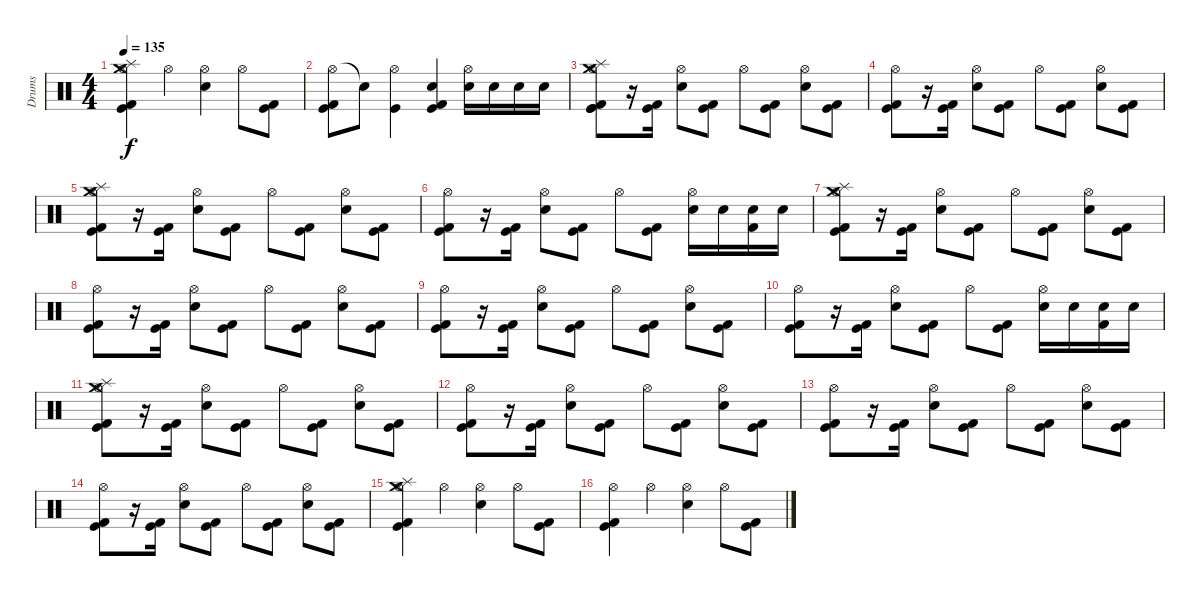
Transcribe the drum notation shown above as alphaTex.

\track ("Drums" "Drums") {instrument percussion}
\staff {score}
\articulation defaults
\ts (4 4)
\tempo 135
\clef neutral
\ks c
("Hi-Hat (open)" "Splash (hit)" "Crash medium (hit)" "Kick (hit)" "Kick (hit) 2").4{dy f} "Hi-Hat (open)".4 ("Hi-Hat (open)" "Snare (hit) 2").4 "Hi-Hat (open)".8 ("Kick (hit)" "Kick (hit) 2").8 |
("Hi-Hat (open)" "Kick (hit)" "Kick (hit) 2").8 "Snare (hit)"{t}.8 ("Hi-Hat (open)" "Kick (hit)").4 ("Kick (hit)" "Kick (hit) 2" "Snare (hit) 2").4 ("Hi-Hat (open)" "Snare (hit) 2").16 "Snare (hit) 2".16 "Snare (hit) 2".16 "Snare (hit) 2".16 |
("Hi-Hat (open)" "Kick (hit)" "Kick (hit) 2" "Splash (hit)" "Crash medium (hit)" "Kick (hit)").8 r.16 ("Kick (hit)" "Kick (hit) 2").16 ("Hi-Hat (open)" "Snare (hit) 2").8 ("Kick (hit)" "Kick (hit) 2").8 "Hi-Hat (open)".8 ("Kick (hit)" "Kick (hit) 2").8 ("Hi-Hat (open)" "Snare (hit) 2").8 ("Kick (hit) 2" "Kick (hit)").8 |
("Hi-Hat (open)" "Kick (hit)" "Kick (hit) 2").8 r.16 ("Kick (hit)" "Kick (hit) 2").16 ("Hi-Hat (open)" "Snare (hit) 2").8 ("Kick (hit)" "Kick (hit) 2").8 "Hi-Hat (open)".8 ("Kick (hit)" "Kick (hit) 2").8 ("Hi-Hat (open)" "Snare (hit) 2").8 ("Kick (hit) 2" "Kick (hit)").8 |
("Hi-Hat (open)" "Kick (hit)" "Kick (hit) 2" "Splash (hit)" "Crash medium (hit)").8 r.16 ("Kick (hit)" "Kick (hit) 2").16 ("Hi-Hat (open)" "Snare (hit) 2").8 ("Kick (hit)" "Kick (hit) 2").8 "Hi-Hat (open)".8 ("Kick (hit)" "Kick (hit) 2").8 ("Hi-Hat (open)" "Snare (hit) 2").8 ("Kick (hit) 2" "Kick (hit)").8 |
("Hi-Hat (open)" "Kick (hit)" "Kick (hit) 2").8 r.16 ("Kick (hit)" "Kick (hit) 2").16 ("Hi-Hat (open)" "Snare (hit) 2").8 ("Kick (hit)" "Kick (hit) 2").8 "Hi-Hat (open)".8 ("Kick (hit)" "Kick (hit) 2").8 ("Hi-Hat (open)" "Snare (hit) 2").16 "Snare (hit) 2".16 ("Kick (hit) 2" "Snare (hit) 2").16 "Snare (hit) 2".16 |
("Hi-Hat (open)" "Kick (hit)" "Kick (hit) 2" "Splash (hit)" "Crash medium (hit)").8 r.16 ("Kick (hit)" "Kick (hit) 2").16 ("Hi-Hat (open)" "Snare (hit) 2").8 ("Kick (hit)" "Kick (hit) 2").8 "Hi-Hat (open)".8 ("Kick (hit)" "Kick (hit) 2").8 ("Hi-Hat (open)" "Snare (hit) 2").8 ("Kick (hit) 2" "Kick (hit)").8 |
("Hi-Hat (open)" "Kick (hit)" "Kick (hit) 2").8 r.16 ("Kick (hit)" "Kick (hit) 2").16 ("Hi-Hat (open)" "Snare (hit) 2").8 ("Kick (hit)" "Kick (hit) 2").8 "Hi-Hat (open)".8 ("Kick (hit)" "Kick (hit) 2").8 ("Hi-Hat (open)" "Snare (hit) 2").8 ("Kick (hit) 2" "Kick (hit)").8 |
("Hi-Hat (open)" "Kick (hit)" "Kick (hit) 2").8 r.16 ("Kick (hit)" "Kick (hit) 2").16 ("Hi-Hat (open)" "Snare (hit) 2").8 ("Kick (hit)" "Kick (hit) 2").8 "Hi-Hat (open)".8 ("Kick (hit)" "Kick (hit) 2").8 ("Hi-Hat (open)" "Snare (hit) 2").8 ("Kick (hit) 2" "Kick (hit)").8 |
("Hi-Hat (open)" "Kick (hit)" "Kick (hit) 2").8 r.16 ("Kick (hit)" "Kick (hit) 2").16 ("Hi-Hat (open)" "Snare (hit) 2").8 ("Kick (hit)" "Kick (hit) 2").8 "Hi-Hat (open)".8 ("Kick (hit)" "Kick (hit) 2").8 ("Hi-Hat (open)" "Snare (hit) 2").16 "Snare (hit) 2".16 ("Kick (hit) 2" "Snare (hit) 2").16 "Snare (hit) 2".16 |
("Hi-Hat (open)" "Kick (hit)" "Kick (hit) 2" "Splash (hit)" "Crash medium (hit)").8 r.16 ("Kick (hit)" "Kick (hit) 2").16 ("Hi-Hat (open)" "Snare (hit) 2").8 ("Kick (hit)" "Kick (hit) 2").8 "Hi-Hat (open)".8 ("Kick (hit)" "Kick (hit) 2").8 ("Hi-Hat (open)" "Snare (hit) 2").8 ("Kick (hit) 2" "Kick (hit)").8 |
("Hi-Hat (open)" "Kick (hit)" "Kick (hit) 2").8 r.16 ("Kick (hit)" "Kick (hit) 2").16 ("Hi-Hat (open)" "Snare (hit) 2").8 ("Kick (hit)" "Kick (hit) 2").8 "Hi-Hat (open)".8 ("Kick (hit)" "Kick (hit) 2").8 ("Hi-Hat (open)" "Snare (hit) 2").8 ("Kick (hit) 2" "Kick (hit)").8 |
("Hi-Hat (open)" "Kick (hit)" "Kick (hit) 2").8 r.16 ("Kick (hit)" "Kick (hit) 2").16 ("Hi-Hat (open)" "Snare (hit) 2").8 ("Kick (hit)" "Kick (hit) 2").8 "Hi-Hat (open)".8 ("Kick (hit)" "Kick (hit) 2").8 ("Hi-Hat (open)" "Snare (hit) 2").8 ("Kick (hit) 2" "Kick (hit)").8 |
("Hi-Hat (open)" "Kick (hit)" "Kick (hit) 2").8 r.16 ("Kick (hit)" "Kick (hit) 2").16 ("Hi-Hat (open)" "Snare (hit) 2").8 ("Kick (hit)" "Kick (hit) 2").8 "Hi-Hat (open)".8 ("Kick (hit)" "Kick (hit) 2").8 ("Hi-Hat (open)" "Snare (hit) 2").8 ("Kick (hit) 2" "Kick (hit)").8 |
("Hi-Hat (open)" "Splash (hit)" "Crash medium (hit)" "Kick (hit)" "Kick (hit) 2").4 "Hi-Hat (open)".4 ("Hi-Hat (open)" "Snare (hit) 2").4 "Hi-Hat (open)".8 ("Kick (hit)" "Kick (hit) 2").8 |
("Hi-Hat (open)" "Kick (hit)" "Kick (hit) 2").4 "Hi-Hat (open)".4 ("Hi-Hat (open)" "Snare (hit) 2").4 "Hi-Hat (open)".8 ("Kick (hit)" "Kick (hit) 2").8
